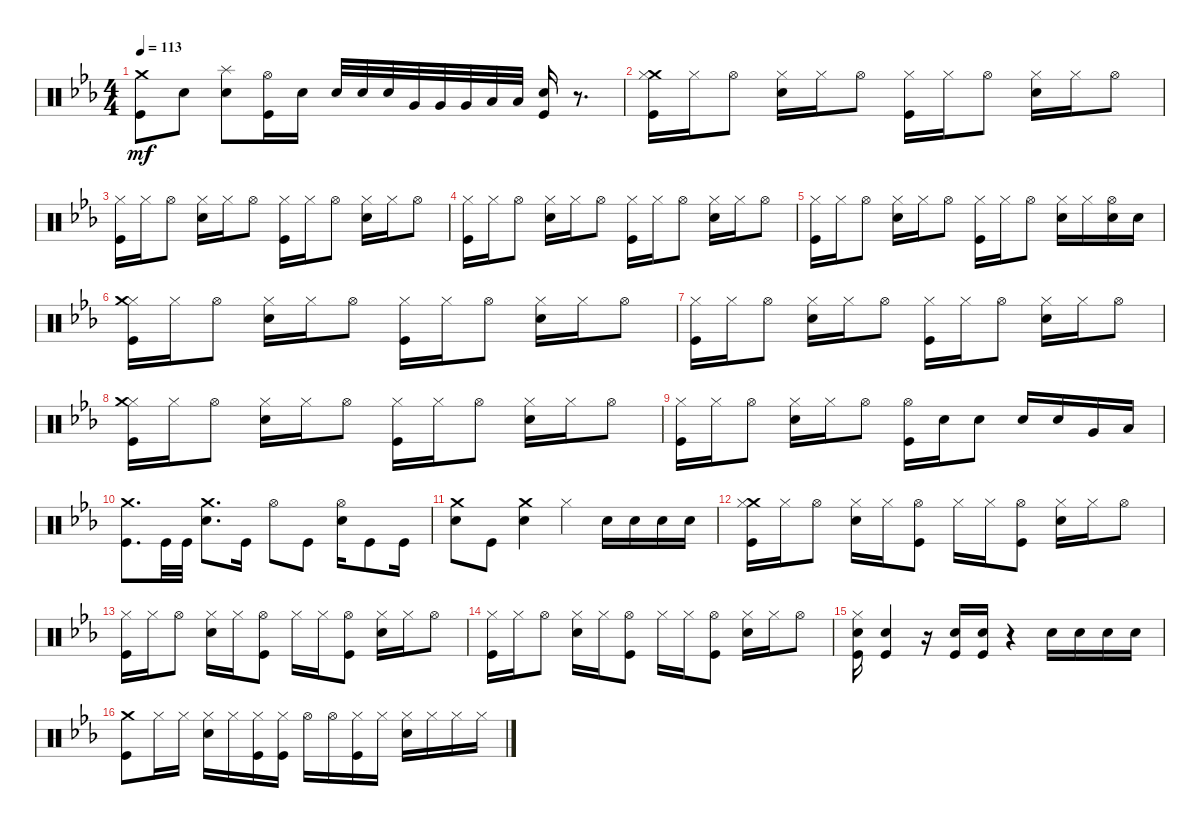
\track "" {instrument percussion}
\staff {score}
\articulation defaults
\ts (4 4)
\tempo 113
\clef neutral
\ks eb
("Crash medium (hit)" "Kick (hit)").8{dy mf} "Snare (hit) 2".8 ("Snare (hit) 2" "Splash (hit)").8 ("Hi-Hat (open)" "Kick (hit)").16 "Snare (hit) 2".16 "Snare (hit) 2".32 "Snare (hit) 2".32 "Snare (hit) 2".32 "Very Low Tom (hit)".32 "Very Low Tom (hit)".32 "Very Low Tom (hit)".32 "Low Floor Tom (hit)".32 "Low Floor Tom (hit)".32 ("Kick (hit)" "Snare (hit) 2").16 r.8{d} |
("Crash medium (hit)" "Hi-Hat (closed)" "Kick (hit)").16 "Hi-Hat (closed)".16 "Hi-Hat (open)".8 ("Hi-Hat (closed)" "Snare (hit) 2").16 "Hi-Hat (closed)".16 "Hi-Hat (open)".8 ("Hi-Hat (closed)" "Kick (hit)").16 "Hi-Hat (closed)".16 "Hi-Hat (open)".8 ("Hi-Hat (closed)" "Snare (hit) 2").16 "Hi-Hat (closed)".16 "Hi-Hat (open)".8 |
("Hi-Hat (closed)" "Kick (hit)").16 "Hi-Hat (closed)".16 "Hi-Hat (open)".8 ("Hi-Hat (closed)" "Snare (hit) 2").16 "Hi-Hat (closed)".16 "Hi-Hat (open)".8 ("Hi-Hat (closed)" "Kick (hit)").16 "Hi-Hat (closed)".16 "Hi-Hat (open)".8 ("Hi-Hat (closed)" "Snare (hit) 2").16 "Hi-Hat (closed)".16 "Hi-Hat (open)".8 |
("Hi-Hat (closed)" "Kick (hit)").16 "Hi-Hat (closed)".16 "Hi-Hat (open)".8 ("Hi-Hat (closed)" "Snare (hit) 2").16 "Hi-Hat (closed)".16 "Hi-Hat (open)".8 ("Hi-Hat (closed)" "Kick (hit)").16 "Hi-Hat (closed)".16 "Hi-Hat (open)".8 ("Hi-Hat (closed)" "Snare (hit) 2").16 "Hi-Hat (closed)".16 "Hi-Hat (open)".8 |
("Hi-Hat (closed)" "Kick (hit)").16 "Hi-Hat (closed)".16 "Hi-Hat (open)".8 ("Hi-Hat (closed)" "Snare (hit) 2").16 "Hi-Hat (closed)".16 "Hi-Hat (open)".8 ("Hi-Hat (closed)" "Kick (hit)").16 "Hi-Hat (closed)".16 "Hi-Hat (open)".8 ("Hi-Hat (closed)" "Snare (hit) 2").16 "Hi-Hat (closed)".16 ("Hi-Hat (open)" "Snare (hit) 2").16 "Snare (hit) 2".16 |
("Hi-Hat (closed)" "Kick (hit)" "Crash medium (hit)").16 "Hi-Hat (closed)".16 "Hi-Hat (open)".8 ("Hi-Hat (closed)" "Snare (hit) 2").16 "Hi-Hat (closed)".16 "Hi-Hat (open)".8 ("Hi-Hat (closed)" "Kick (hit)").16 "Hi-Hat (closed)".16 "Hi-Hat (open)".8 ("Hi-Hat (closed)" "Snare (hit) 2").16 "Hi-Hat (closed)".16 "Hi-Hat (open)".8 |
("Hi-Hat (closed)" "Kick (hit)").16 "Hi-Hat (closed)".16 "Hi-Hat (open)".8 ("Hi-Hat (closed)" "Snare (hit) 2").16 "Hi-Hat (closed)".16 "Hi-Hat (open)".8 ("Hi-Hat (closed)" "Kick (hit)").16 "Hi-Hat (closed)".16 "Hi-Hat (open)".8 ("Hi-Hat (closed)" "Snare (hit) 2").16 "Hi-Hat (closed)".16 "Hi-Hat (open)".8 |
("Hi-Hat (closed)" "Kick (hit)" "Crash medium (hit)").16 "Hi-Hat (closed)".16 "Hi-Hat (open)".8 ("Hi-Hat (closed)" "Snare (hit) 2").16 "Hi-Hat (closed)".16 "Hi-Hat (open)".8 ("Hi-Hat (closed)" "Kick (hit)").16 "Hi-Hat (closed)".16 "Hi-Hat (open)".8 ("Hi-Hat (closed)" "Snare (hit) 2").16 "Hi-Hat (closed)".16 "Hi-Hat (open)".8 |
("Hi-Hat (closed)" "Kick (hit)").16 "Hi-Hat (closed)".16 "Hi-Hat (open)".8 ("Hi-Hat (closed)" "Snare (hit) 2").16 "Hi-Hat (closed)".16 "Hi-Hat (open)".8 ("Hi-Hat (open)" "Kick (hit)").16 "Snare (hit) 2".16 "Snare (hit) 2".8 "Snare (hit) 2".16 "Snare (hit) 2".16 "Very Low Tom (hit)".16 "Low Floor Tom (hit)".16 |
("Kick (hit)" "Crash medium (hit)").8{d} "Kick (hit)".32 "Kick (hit)".32 ("Snare (hit) 2" "Crash medium (hit)").8{d} "Kick (hit)".16 "Hi-Hat (open)".8 "Kick (hit)".8 ("Hi-Hat (open)" "Snare (hit) 2").16 "Kick (hit)".8 "Kick (hit)".16 |
("Snare (hit) 2" "Crash medium (hit)").8 "Kick (hit)".8 ("Snare (hit) 2" "Crash medium (hit)").4 "Hi-Hat (closed)".4 "Snare (hit) 2".16 "Snare (hit) 2".16 "Snare (hit) 2".16 "Snare (hit) 2".16 |
("Crash medium (hit)" "Hi-Hat (closed)" "Kick (hit)").16 "Hi-Hat (closed)".16 "Hi-Hat (open)".8 ("Hi-Hat (closed)" "Snare (hit) 2").16 "Hi-Hat (closed)".16 ("Hi-Hat (open)" "Kick (hit)").8 "Hi-Hat (closed)".16 "Hi-Hat (closed)".16 ("Hi-Hat (open)" "Kick (hit)").8 ("Hi-Hat (closed)" "Snare (hit) 2").16 "Hi-Hat (closed)".16 "Hi-Hat (open)".8 |
("Hi-Hat (closed)" "Kick (hit)").16 "Hi-Hat (closed)".16 "Hi-Hat (open)".8 ("Hi-Hat (closed)" "Snare (hit) 2").16 "Hi-Hat (closed)".16 ("Hi-Hat (open)" "Kick (hit)").8 "Hi-Hat (closed)".16 "Hi-Hat (closed)".16 ("Hi-Hat (open)" "Kick (hit)").8 ("Hi-Hat (closed)" "Snare (hit) 2").16 "Hi-Hat (closed)".16 "Hi-Hat (open)".8 |
("Hi-Hat (closed)" "Kick (hit)").16 "Hi-Hat (closed)".16 "Hi-Hat (open)".8 ("Hi-Hat (closed)" "Snare (hit) 2").16 "Hi-Hat (closed)".16 ("Hi-Hat (open)" "Kick (hit)").8 "Hi-Hat (closed)".16 "Hi-Hat (closed)".16 ("Hi-Hat (open)" "Kick (hit)").8 ("Hi-Hat (closed)" "Snare (hit) 2").16 "Hi-Hat (closed)".16 "Hi-Hat (open)".8 |
("Hi-Hat (closed)" "Kick (hit)" "Snare (hit) 2").16 ("Snare (hit) 2" "Kick (hit)").4 r.16 ("Snare (hit) 2" "Kick (hit)").16 ("Snare (hit) 2" "Kick (hit)").16 r.4 "Snare (hit) 2".16 "Snare (hit) 2".16 "Snare (hit) 2".16 "Snare (hit) 2".16 |
("Crash medium (hit)" "Kick (hit)").8 "Hi-Hat (closed)".16 "Hi-Hat (closed)".16 ("Hi-Hat (closed)" "Snare (hit) 2").16 "Hi-Hat (closed)".16 ("Hi-Hat (closed)" "Kick (hit)").16 ("Hi-Hat (closed)" "Kick (hit)").16 "Hi-Hat (open)".16 "Hi-Hat (open)".16 ("Hi-Hat (closed)" "Kick (hit)").16 "Hi-Hat (closed)".16 ("Hi-Hat (closed)" "Snare (hit) 2").16 "Hi-Hat (closed)".16 "Hi-Hat (closed)".16 "Hi-Hat (closed)".16
